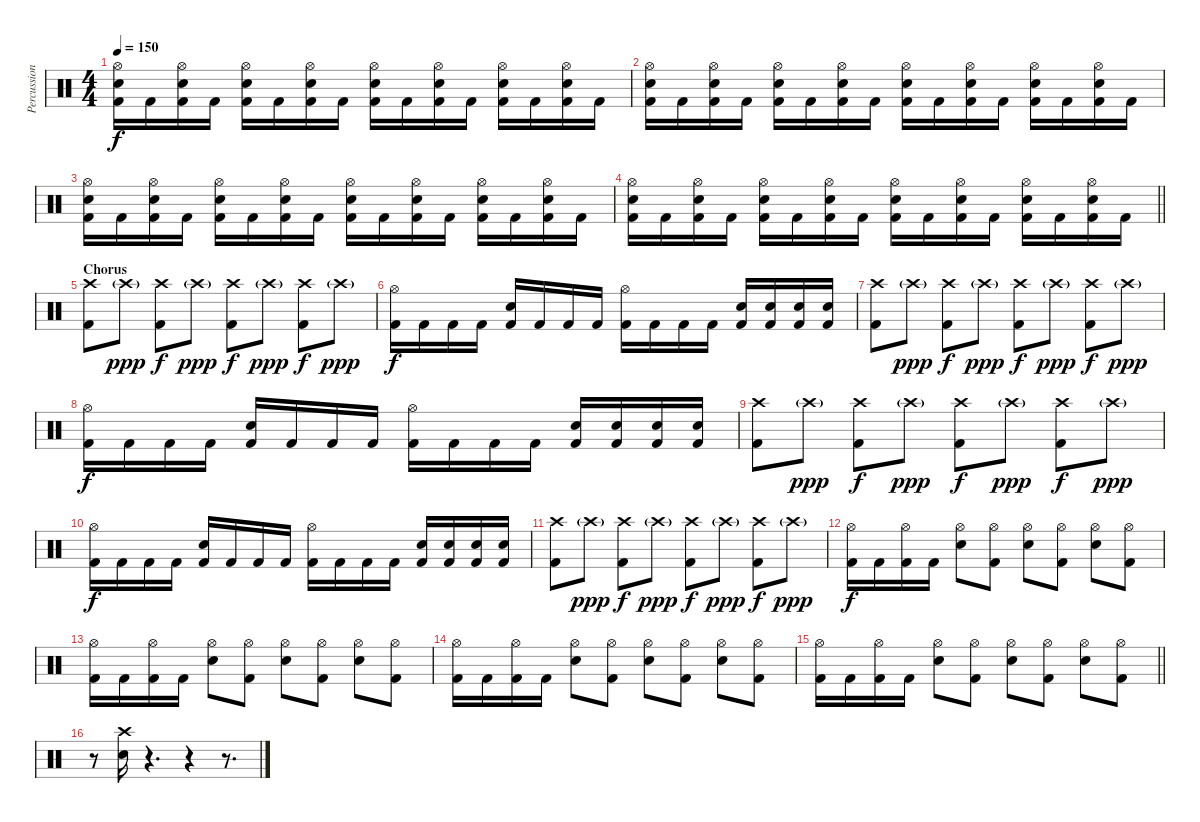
\track ("Percussion" "Percussion") {instrument percussion}
\staff {score}
\articulation defaults
\ts (4 4)
\tempo 150
\clef neutral
\ks c
("Hi-Hat (open)" "Electric Snare (hit)" "Kick (hit) 2").16{dy f} "Kick (hit) 2".16 ("Hi-Hat (open)" "Electric Snare (hit)" "Kick (hit) 2").16 "Kick (hit) 2".16 ("Hi-Hat (open)" "Electric Snare (hit)" "Kick (hit) 2").16 "Kick (hit) 2".16 ("Hi-Hat (open)" "Electric Snare (hit)" "Kick (hit) 2").16 "Kick (hit) 2".16 ("Hi-Hat (open)" "Electric Snare (hit)" "Kick (hit) 2").16 "Kick (hit) 2".16 ("Hi-Hat (open)" "Electric Snare (hit)" "Kick (hit) 2").16 "Kick (hit) 2".16 ("Hi-Hat (open)" "Electric Snare (hit)" "Kick (hit) 2").16 "Kick (hit) 2".16 ("Hi-Hat (open)" "Electric Snare (hit)" "Kick (hit) 2").16 "Kick (hit) 2".16 |
("Hi-Hat (open)" "Electric Snare (hit)" "Kick (hit) 2").16 "Kick (hit) 2".16 ("Hi-Hat (open)" "Electric Snare (hit)" "Kick (hit) 2").16 "Kick (hit) 2".16 ("Hi-Hat (open)" "Electric Snare (hit)" "Kick (hit) 2").16 "Kick (hit) 2".16 ("Hi-Hat (open)" "Electric Snare (hit)" "Kick (hit) 2").16 "Kick (hit) 2".16 ("Hi-Hat (open)" "Electric Snare (hit)" "Kick (hit) 2").16 "Kick (hit) 2".16 ("Hi-Hat (open)" "Electric Snare (hit)" "Kick (hit) 2").16 "Kick (hit) 2".16 ("Hi-Hat (open)" "Electric Snare (hit)" "Kick (hit) 2").16 "Kick (hit) 2".16 ("Hi-Hat (open)" "Electric Snare (hit)" "Kick (hit) 2").16 "Kick (hit) 2".16 |
("Hi-Hat (open)" "Electric Snare (hit)" "Kick (hit) 2").16 "Kick (hit) 2".16 ("Hi-Hat (open)" "Electric Snare (hit)" "Kick (hit) 2").16 "Kick (hit) 2".16 ("Hi-Hat (open)" "Electric Snare (hit)" "Kick (hit) 2").16 "Kick (hit) 2".16 ("Hi-Hat (open)" "Electric Snare (hit)" "Kick (hit) 2").16 "Kick (hit) 2".16 ("Hi-Hat (open)" "Electric Snare (hit)" "Kick (hit) 2").16 "Kick (hit) 2".16 ("Hi-Hat (open)" "Electric Snare (hit)" "Kick (hit) 2").16 "Kick (hit) 2".16 ("Hi-Hat (open)" "Electric Snare (hit)" "Kick (hit) 2").16 "Kick (hit) 2".16 ("Hi-Hat (open)" "Electric Snare (hit)" "Kick (hit) 2").16 "Kick (hit) 2".16 |
\barLineRight lightlight
("Hi-Hat (open)" "Electric Snare (hit)" "Kick (hit) 2").16 "Kick (hit) 2".16 ("Hi-Hat (open)" "Electric Snare (hit)" "Kick (hit) 2").16 "Kick (hit) 2".16 ("Hi-Hat (open)" "Electric Snare (hit)" "Kick (hit) 2").16 "Kick (hit) 2".16 ("Hi-Hat (open)" "Electric Snare (hit)" "Kick (hit) 2").16 "Kick (hit) 2".16 ("Hi-Hat (open)" "Electric Snare (hit)" "Kick (hit) 2").16 "Kick (hit) 2".16 ("Hi-Hat (open)" "Electric Snare (hit)" "Kick (hit) 2").16 "Kick (hit) 2".16 ("Hi-Hat (open)" "Electric Snare (hit)" "Kick (hit) 2").16 "Kick (hit) 2".16 ("Hi-Hat (open)" "Electric Snare (hit)" "Kick (hit) 2").16 "Kick (hit) 2".16 |
\section ("" "Chorus")
("Crash high (hit)" "Kick (hit) 2").8 "Crash high (hit)"{g}.8{dy ppp} ("Crash high (hit)" "Kick (hit) 2").8{dy f} "Crash high (hit)"{g}.8{dy ppp} ("Crash high (hit)" "Kick (hit) 2").8{dy f} "Crash high (hit)"{g}.8{dy ppp} ("Crash high (hit)" "Kick (hit) 2").8{dy f} "Crash high (hit)"{g}.8{dy ppp} |
("Hi-Hat (open)" "Kick (hit) 2").16{dy f} "Kick (hit) 2".16 "Kick (hit) 2".16 "Kick (hit) 2".16 ("Electric Snare (hit)" "Kick (hit) 2").16 "Kick (hit) 2".16 "Kick (hit) 2".16 "Kick (hit) 2".16 ("Hi-Hat (open)" "Kick (hit) 2").16 "Kick (hit) 2".16 "Kick (hit) 2".16 "Kick (hit) 2".16 ("Electric Snare (hit)" "Kick (hit) 2").16 ("Electric Snare (hit)" "Kick (hit) 2").16 ("Electric Snare (hit)" "Kick (hit) 2").16 ("Electric Snare (hit)" "Kick (hit) 2").16 |
("Crash high (hit)" "Kick (hit) 2").8 "Crash high (hit)"{g}.8{dy ppp} ("Crash high (hit)" "Kick (hit) 2").8{dy f} "Crash high (hit)"{g}.8{dy ppp} ("Crash high (hit)" "Kick (hit) 2").8{dy f} "Crash high (hit)"{g}.8{dy ppp} ("Crash high (hit)" "Kick (hit) 2").8{dy f} "Crash high (hit)"{g}.8{dy ppp} |
("Hi-Hat (open)" "Kick (hit) 2").16{dy f} "Kick (hit) 2".16 "Kick (hit) 2".16 "Kick (hit) 2".16 ("Electric Snare (hit)" "Kick (hit) 2").16 "Kick (hit) 2".16 "Kick (hit) 2".16 "Kick (hit) 2".16 ("Hi-Hat (open)" "Kick (hit) 2").16 "Kick (hit) 2".16 "Kick (hit) 2".16 "Kick (hit) 2".16 ("Electric Snare (hit)" "Kick (hit) 2").16 ("Electric Snare (hit)" "Kick (hit) 2").16 ("Electric Snare (hit)" "Kick (hit) 2").16 ("Electric Snare (hit)" "Kick (hit) 2").16 |
("Crash high (hit)" "Kick (hit) 2").8 "Crash high (hit)"{g}.8{dy ppp} ("Crash high (hit)" "Kick (hit) 2").8{dy f} "Crash high (hit)"{g}.8{dy ppp} ("Crash high (hit)" "Kick (hit) 2").8{dy f} "Crash high (hit)"{g}.8{dy ppp} ("Crash high (hit)" "Kick (hit) 2").8{dy f} "Crash high (hit)"{g}.8{dy ppp} |
("Hi-Hat (open)" "Kick (hit) 2").16{dy f} "Kick (hit) 2".16 "Kick (hit) 2".16 "Kick (hit) 2".16 ("Electric Snare (hit)" "Kick (hit) 2").16 "Kick (hit) 2".16 "Kick (hit) 2".16 "Kick (hit) 2".16 ("Hi-Hat (open)" "Kick (hit) 2").16 "Kick (hit) 2".16 "Kick (hit) 2".16 "Kick (hit) 2".16 ("Electric Snare (hit)" "Kick (hit) 2").16 ("Electric Snare (hit)" "Kick (hit) 2").16 ("Electric Snare (hit)" "Kick (hit) 2").16 ("Electric Snare (hit)" "Kick (hit) 2").16 |
("Crash high (hit)" "Kick (hit) 2").8 "Crash high (hit)"{g}.8{dy ppp} ("Crash high (hit)" "Kick (hit) 2").8{dy f} "Crash high (hit)"{g}.8{dy ppp} ("Crash high (hit)" "Kick (hit) 2").8{dy f} "Crash high (hit)"{g}.8{dy ppp} ("Crash high (hit)" "Kick (hit) 2").8{dy f} "Crash high (hit)"{g}.8{dy ppp} |
("Hi-Hat (open)" "Kick (hit) 2").16{dy f} "Kick (hit) 2".16 ("Hi-Hat (open)" "Kick (hit) 2").16 "Kick (hit) 2".16 ("Hi-Hat (open)" "Electric Snare (hit)").8 ("Hi-Hat (open)" "Kick (hit) 2").8 ("Hi-Hat (open)" "Electric Snare (hit)").8 ("Hi-Hat (open)" "Kick (hit) 2").8 ("Hi-Hat (open)" "Electric Snare (hit)").8 ("Hi-Hat (open)" "Kick (hit) 2").8 |
("Hi-Hat (open)" "Kick (hit) 2").16 "Kick (hit) 2".16 ("Hi-Hat (open)" "Kick (hit) 2").16 "Kick (hit) 2".16 ("Hi-Hat (open)" "Electric Snare (hit)").8 ("Hi-Hat (open)" "Kick (hit) 2").8 ("Hi-Hat (open)" "Electric Snare (hit)").8 ("Hi-Hat (open)" "Kick (hit) 2").8 ("Hi-Hat (open)" "Electric Snare (hit)").8 ("Hi-Hat (open)" "Kick (hit) 2").8 |
("Hi-Hat (open)" "Kick (hit) 2").16 "Kick (hit) 2".16 ("Hi-Hat (open)" "Kick (hit) 2").16 "Kick (hit) 2".16 ("Hi-Hat (open)" "Electric Snare (hit)").8 ("Hi-Hat (open)" "Kick (hit) 2").8 ("Hi-Hat (open)" "Electric Snare (hit)").8 ("Hi-Hat (open)" "Kick (hit) 2").8 ("Hi-Hat (open)" "Electric Snare (hit)").8 ("Hi-Hat (open)" "Kick (hit) 2").8 |
\barLineRight lightlight
("Hi-Hat (open)" "Kick (hit) 2").16 "Kick (hit) 2".16 ("Hi-Hat (open)" "Kick (hit) 2").16 "Kick (hit) 2".16 ("Hi-Hat (open)" "Electric Snare (hit)").8 ("Hi-Hat (open)" "Kick (hit) 2").8 ("Hi-Hat (open)" "Electric Snare (hit)").8 ("Hi-Hat (open)" "Kick (hit) 2").8 ("Hi-Hat (open)" "Electric Snare (hit)").8 ("Hi-Hat (open)" "Kick (hit) 2").8 |
r.8 ("Crash high (hit)" "Electric Snare (hit)").16 r.4{d} r.4 r.8{d}
